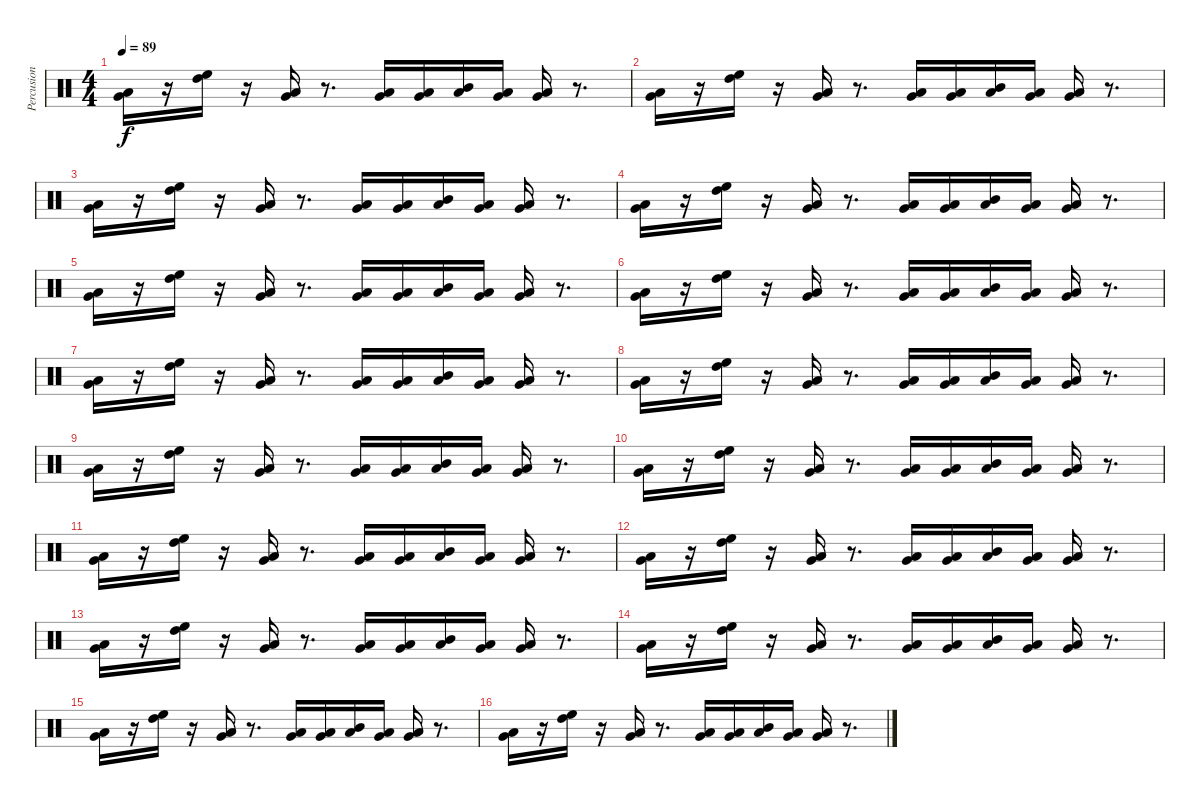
\track ("Percusion" "Percusion") {instrument percussion}
\staff {score}
\articulation defaults
\ts (4 4)
\tempo 89
\clef neutral
\ks c
("Very Low Tom (hit)" "Low Floor Tom (hit)").16{dy f} r.16 ("High Floor Tom (hit)" "High Tom (hit)").16 r.16 ("Very Low Tom (hit)" "Low Floor Tom (hit)").16 r.8{d} ("Very Low Tom (hit)" "Low Floor Tom (hit)").16 ("Very Low Tom (hit)" "Low Floor Tom (hit)").16 ("Mid Tom (hit)" "Low Floor Tom (hit)").16 ("Very Low Tom (hit)" "Low Floor Tom (hit)").16 ("Very Low Tom (hit)" "Low Floor Tom (hit)").16 r.8{d} |
("Very Low Tom (hit)" "Low Floor Tom (hit)").16 r.16 ("High Floor Tom (hit)" "High Tom (hit)").16 r.16 ("Very Low Tom (hit)" "Low Floor Tom (hit)").16 r.8{d} ("Very Low Tom (hit)" "Low Floor Tom (hit)").16 ("Very Low Tom (hit)" "Low Floor Tom (hit)").16 ("Mid Tom (hit)" "Low Floor Tom (hit)").16 ("Very Low Tom (hit)" "Low Floor Tom (hit)").16 ("Very Low Tom (hit)" "Low Floor Tom (hit)").16 r.8{d} |
("Very Low Tom (hit)" "Low Floor Tom (hit)").16 r.16 ("High Floor Tom (hit)" "High Tom (hit)").16 r.16 ("Very Low Tom (hit)" "Low Floor Tom (hit)").16 r.8{d} ("Very Low Tom (hit)" "Low Floor Tom (hit)").16 ("Very Low Tom (hit)" "Low Floor Tom (hit)").16 ("Mid Tom (hit)" "Low Floor Tom (hit)").16 ("Very Low Tom (hit)" "Low Floor Tom (hit)").16 ("Very Low Tom (hit)" "Low Floor Tom (hit)").16 r.8{d} |
("Very Low Tom (hit)" "Low Floor Tom (hit)").16 r.16 ("High Floor Tom (hit)" "High Tom (hit)").16 r.16 ("Very Low Tom (hit)" "Low Floor Tom (hit)").16 r.8{d} ("Very Low Tom (hit)" "Low Floor Tom (hit)").16 ("Very Low Tom (hit)" "Low Floor Tom (hit)").16 ("Mid Tom (hit)" "Low Floor Tom (hit)").16 ("Very Low Tom (hit)" "Low Floor Tom (hit)").16 ("Very Low Tom (hit)" "Low Floor Tom (hit)").16 r.8{d} |
("Very Low Tom (hit)" "Low Floor Tom (hit)").16 r.16 ("High Floor Tom (hit)" "High Tom (hit)").16 r.16 ("Very Low Tom (hit)" "Low Floor Tom (hit)").16 r.8{d} ("Very Low Tom (hit)" "Low Floor Tom (hit)").16 ("Very Low Tom (hit)" "Low Floor Tom (hit)").16 ("Mid Tom (hit)" "Low Floor Tom (hit)").16 ("Very Low Tom (hit)" "Low Floor Tom (hit)").16 ("Very Low Tom (hit)" "Low Floor Tom (hit)").16 r.8{d} |
("Very Low Tom (hit)" "Low Floor Tom (hit)").16 r.16 ("High Floor Tom (hit)" "High Tom (hit)").16 r.16 ("Very Low Tom (hit)" "Low Floor Tom (hit)").16 r.8{d} ("Very Low Tom (hit)" "Low Floor Tom (hit)").16 ("Very Low Tom (hit)" "Low Floor Tom (hit)").16 ("Mid Tom (hit)" "Low Floor Tom (hit)").16 ("Very Low Tom (hit)" "Low Floor Tom (hit)").16 ("Very Low Tom (hit)" "Low Floor Tom (hit)").16 r.8{d} |
("Very Low Tom (hit)" "Low Floor Tom (hit)").16 r.16 ("High Floor Tom (hit)" "High Tom (hit)").16 r.16 ("Very Low Tom (hit)" "Low Floor Tom (hit)").16 r.8{d} ("Very Low Tom (hit)" "Low Floor Tom (hit)").16 ("Very Low Tom (hit)" "Low Floor Tom (hit)").16 ("Mid Tom (hit)" "Low Floor Tom (hit)").16 ("Very Low Tom (hit)" "Low Floor Tom (hit)").16 ("Very Low Tom (hit)" "Low Floor Tom (hit)").16 r.8{d} |
("Very Low Tom (hit)" "Low Floor Tom (hit)").16 r.16 ("High Floor Tom (hit)" "High Tom (hit)").16 r.16 ("Very Low Tom (hit)" "Low Floor Tom (hit)").16 r.8{d} ("Very Low Tom (hit)" "Low Floor Tom (hit)").16 ("Very Low Tom (hit)" "Low Floor Tom (hit)").16 ("Mid Tom (hit)" "Low Floor Tom (hit)").16 ("Very Low Tom (hit)" "Low Floor Tom (hit)").16 ("Very Low Tom (hit)" "Low Floor Tom (hit)").16 r.8{d} |
("Very Low Tom (hit)" "Low Floor Tom (hit)").16 r.16 ("High Floor Tom (hit)" "High Tom (hit)").16 r.16 ("Very Low Tom (hit)" "Low Floor Tom (hit)").16 r.8{d} ("Very Low Tom (hit)" "Low Floor Tom (hit)").16 ("Very Low Tom (hit)" "Low Floor Tom (hit)").16 ("Mid Tom (hit)" "Low Floor Tom (hit)").16 ("Very Low Tom (hit)" "Low Floor Tom (hit)").16 ("Very Low Tom (hit)" "Low Floor Tom (hit)").16 r.8{d} |
("Very Low Tom (hit)" "Low Floor Tom (hit)").16 r.16 ("High Floor Tom (hit)" "High Tom (hit)").16 r.16 ("Very Low Tom (hit)" "Low Floor Tom (hit)").16 r.8{d} ("Very Low Tom (hit)" "Low Floor Tom (hit)").16 ("Very Low Tom (hit)" "Low Floor Tom (hit)").16 ("Mid Tom (hit)" "Low Floor Tom (hit)").16 ("Very Low Tom (hit)" "Low Floor Tom (hit)").16 ("Very Low Tom (hit)" "Low Floor Tom (hit)").16 r.8{d} |
("Very Low Tom (hit)" "Low Floor Tom (hit)").16 r.16 ("High Floor Tom (hit)" "High Tom (hit)").16 r.16 ("Very Low Tom (hit)" "Low Floor Tom (hit)").16 r.8{d} ("Very Low Tom (hit)" "Low Floor Tom (hit)").16 ("Very Low Tom (hit)" "Low Floor Tom (hit)").16 ("Mid Tom (hit)" "Low Floor Tom (hit)").16 ("Very Low Tom (hit)" "Low Floor Tom (hit)").16 ("Very Low Tom (hit)" "Low Floor Tom (hit)").16 r.8{d} |
("Very Low Tom (hit)" "Low Floor Tom (hit)").16 r.16 ("High Floor Tom (hit)" "High Tom (hit)").16 r.16 ("Very Low Tom (hit)" "Low Floor Tom (hit)").16 r.8{d} ("Very Low Tom (hit)" "Low Floor Tom (hit)").16 ("Very Low Tom (hit)" "Low Floor Tom (hit)").16 ("Mid Tom (hit)" "Low Floor Tom (hit)").16 ("Very Low Tom (hit)" "Low Floor Tom (hit)").16 ("Very Low Tom (hit)" "Low Floor Tom (hit)").16 r.8{d} |
("Very Low Tom (hit)" "Low Floor Tom (hit)").16 r.16 ("High Floor Tom (hit)" "High Tom (hit)").16 r.16 ("Very Low Tom (hit)" "Low Floor Tom (hit)").16 r.8{d} ("Very Low Tom (hit)" "Low Floor Tom (hit)").16 ("Very Low Tom (hit)" "Low Floor Tom (hit)").16 ("Mid Tom (hit)" "Low Floor Tom (hit)").16 ("Very Low Tom (hit)" "Low Floor Tom (hit)").16 ("Very Low Tom (hit)" "Low Floor Tom (hit)").16 r.8{d} |
("Very Low Tom (hit)" "Low Floor Tom (hit)").16 r.16 ("High Floor Tom (hit)" "High Tom (hit)").16 r.16 ("Very Low Tom (hit)" "Low Floor Tom (hit)").16{volume 14} r.8{d} ("Very Low Tom (hit)" "Low Floor Tom (hit)").16{volume 12 balance 8} ("Very Low Tom (hit)" "Low Floor Tom (hit)").16{volume 12} ("Mid Tom (hit)" "Low Floor Tom (hit)").16{volume 12} ("Very Low Tom (hit)" "Low Floor Tom (hit)").16{volume 12} ("Very Low Tom (hit)" "Low Floor Tom (hit)").16{volume 11} r.8{d} |
("Very Low Tom (hit)" "Low Floor Tom (hit)").16{volume 10} r.16 ("High Floor Tom (hit)" "High Tom (hit)").16{volume 9} r.16 ("Very Low Tom (hit)" "Low Floor Tom (hit)").16{volume 9} r.8{d} ("Very Low Tom (hit)" "Low Floor Tom (hit)").16{volume 8} ("Very Low Tom (hit)" "Low Floor Tom (hit)").16{volume 7} ("Mid Tom (hit)" "Low Floor Tom (hit)").16{volume 7} ("Very Low Tom (hit)" "Low Floor Tom (hit)").16{volume 7} ("Very Low Tom (hit)" "Low Floor Tom (hit)").16{volume 6} r.8{d} |
("Very Low Tom (hit)" "Low Floor Tom (hit)").16{volume 5} r.16 ("High Floor Tom (hit)" "High Tom (hit)").16{volume 5} r.16 ("Very Low Tom (hit)" "Low Floor Tom (hit)").16{volume 4} r.8{d} ("Very Low Tom (hit)" "Low Floor Tom (hit)").16{volume 3} ("Very Low Tom (hit)" "Low Floor Tom (hit)").16{volume 2} ("Mid Tom (hit)" "Low Floor Tom (hit)").16{volume 2} ("Very Low Tom (hit)" "Low Floor Tom (hit)").16{volume 2} ("Very Low Tom (hit)" "Low Floor Tom (hit)").16{volume 2} r.8{d}
